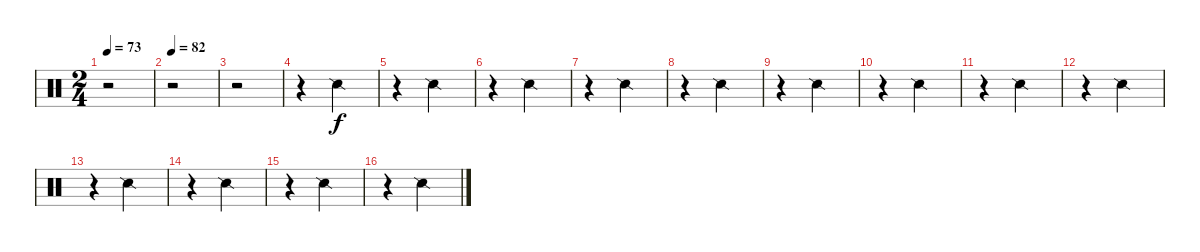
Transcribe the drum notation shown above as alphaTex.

\track "" {instrument percussion}
\staff {score}
\articulation defaults
\ts (2 4)
\tempo 73
\clef neutral
\ks c
r.2{dy f} |
\tempo 82
r.2 |
r.2 |
r.4 "Snare (side stick) 2".4 |
r.4 "Snare (side stick) 2".4 |
r.4 "Snare (side stick) 2".4 |
r.4 "Snare (side stick) 2".4 |
r.4 "Snare (side stick) 2".4 |
r.4 "Snare (side stick) 2".4 |
r.4 "Snare (side stick) 2".4 |
r.4 "Snare (side stick) 2".4 |
r.4 "Snare (side stick) 2".4 |
r.4 "Snare (side stick) 2".4 |
r.4 "Snare (side stick) 2".4 |
r.4 "Snare (side stick) 2".4 |
r.4 "Snare (side stick) 2".4
